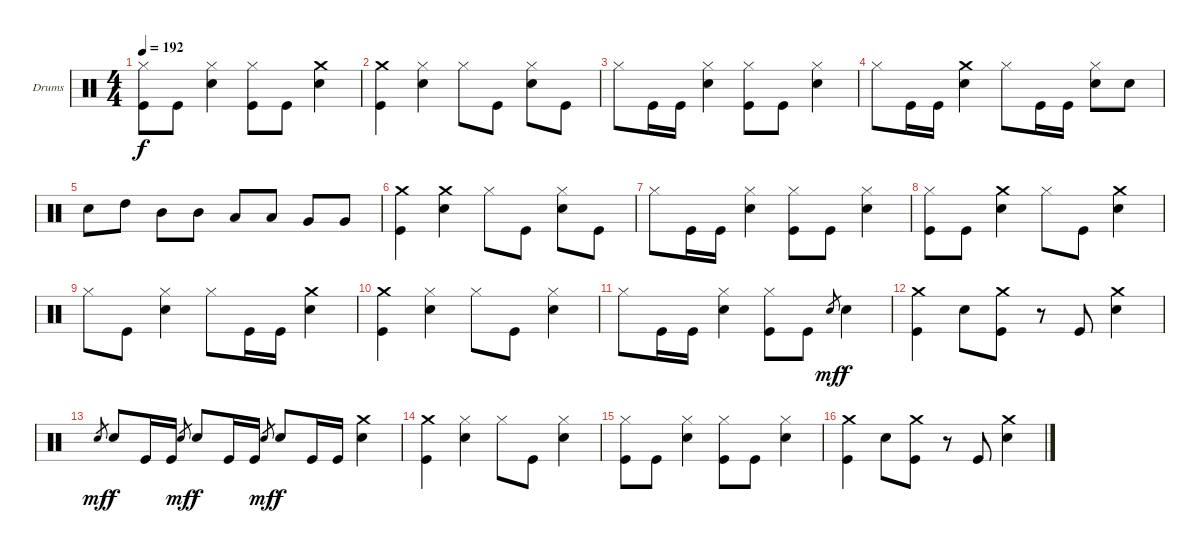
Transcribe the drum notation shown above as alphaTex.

\bracketExtendMode groupsimilarinstruments
\firstSystemTrackNameOrientation horizontal
\otherSystemsTrackNameOrientation horizontal
\track ("Lars Ulrich" "Drums") {instrument percussion}
\staff {score}
\articulation defaults
\ts (4 4)
\tempo 192
\clef neutral
\ks c
("Hi-Hat (closed)" "Kick (hit)").8{dy f} "Kick (hit)".8 ("Hi-Hat (closed)" "Snare (hit) 2").4 ("Hi-Hat (closed)" "Kick (hit)").8 "Kick (hit)".8 ("Crash medium (hit)" "Snare (hit) 2").4 |
("Crash medium (hit)" "Kick (hit)").4 ("Hi-Hat (closed)" "Snare (hit) 2").4 "Hi-Hat (closed)".8 "Kick (hit)".8 ("Hi-Hat (closed)" "Snare (hit) 2").8 "Kick (hit)".8 |
"Hi-Hat (closed)".8 "Kick (hit)".16 "Kick (hit)".16 ("Hi-Hat (closed)" "Snare (hit) 2").4 ("Hi-Hat (closed)" "Kick (hit)").8 "Kick (hit)".8 ("Hi-Hat (closed)" "Snare (hit) 2").4 |
"Hi-Hat (closed)".8 "Kick (hit)".16 "Kick (hit)".16 ("Crash medium (hit)" "Snare (hit) 2").4 "Hi-Hat (closed)".8 "Kick (hit)".16 "Kick (hit)".16 ("Hi-Hat (closed)" "Snare (hit) 2").8 "Snare (hit) 2".8 |
"Snare (hit) 2".8 "High Tom (hit)".8 "Mid Tom (hit)".8 "Mid Tom (hit)".8 "Low Tom (hit)".8 "Low Tom (hit)".8 "Very Low Tom (hit)".8 "Very Low Tom (hit)".8 |
("Crash medium (hit)" "Kick (hit)").4 ("Crash medium (hit)" "Snare (hit) 2").4 "Hi-Hat (closed)".8 "Kick (hit)".8 ("Hi-Hat (closed)" "Snare (hit) 2").8 "Kick (hit)".8 |
"Hi-Hat (closed)".8 "Kick (hit)".16 "Kick (hit)".16 ("Hi-Hat (closed)" "Snare (hit) 2").4 ("Hi-Hat (closed)" "Kick (hit)").8 "Kick (hit)".8 ("Hi-Hat (closed)" "Snare (hit) 2").4 |
("Hi-Hat (closed)" "Kick (hit)").8 "Kick (hit)".8 ("Crash medium (hit)" "Snare (hit) 2").4 "Hi-Hat (closed)".8 "Kick (hit)".8 ("Crash medium (hit)" "Snare (hit) 2").4 |
"Hi-Hat (closed)".8 "Kick (hit)".8 ("Hi-Hat (closed)" "Snare (hit) 2").4 "Hi-Hat (closed)".8 "Kick (hit)".16 "Kick (hit)".16 ("Crash medium (hit)" "Snare (hit) 2").4 |
("Crash medium (hit)" "Kick (hit)").4 ("Hi-Hat (closed)" "Snare (hit) 2").4 "Hi-Hat (closed)".8 "Kick (hit)".8 ("Hi-Hat (closed)" "Snare (hit) 2").4 |
"Hi-Hat (closed)".8 "Kick (hit)".16 "Kick (hit)".16 ("Hi-Hat (closed)" "Snare (hit) 2").4 ("Hi-Hat (closed)" "Kick (hit)").8 "Kick (hit)".8 "Snare (hit) 2".8{gr dy mf} "Snare (hit) 2".4{dy f} |
("Crash medium (hit)" "Kick (hit)").4 "Snare (hit) 2".8 ("Crash medium (hit)" "Kick (hit)").8 r.8 "Kick (hit)".8 ("Crash medium (hit)" "Snare (hit) 2").4 |
"Snare (hit) 2".8{gr dy mf} "Snare (hit) 2".8{dy f} "Kick (hit)".16 "Kick (hit)".16 "Snare (hit) 2".8{gr dy mf} "Snare (hit) 2".8{dy f} "Kick (hit)".16 "Kick (hit)".16 "Snare (hit) 2".8{gr dy mf} "Snare (hit) 2".8{dy f} "Kick (hit)".16 "Kick (hit)".16 ("Crash medium (hit)" "Snare (hit) 2").4 |
("Crash medium (hit)" "Kick (hit)").4 ("Hi-Hat (closed)" "Snare (hit) 2").4 "Hi-Hat (closed)".8 "Kick (hit)".8 ("Hi-Hat (closed)" "Snare (hit) 2").4 |
("Hi-Hat (closed)" "Kick (hit)").8 "Kick (hit)".8 ("Hi-Hat (closed)" "Snare (hit) 2").4 ("Hi-Hat (closed)" "Kick (hit)").8 "Kick (hit)".8 ("Hi-Hat (closed)" "Snare (hit) 2").4 |
("Crash medium (hit)" "Kick (hit)").4 "Snare (hit) 2".8 ("Crash medium (hit)" "Kick (hit)").8 r.8 "Kick (hit)".8 ("Crash medium (hit)" "Snare (hit) 2").4
